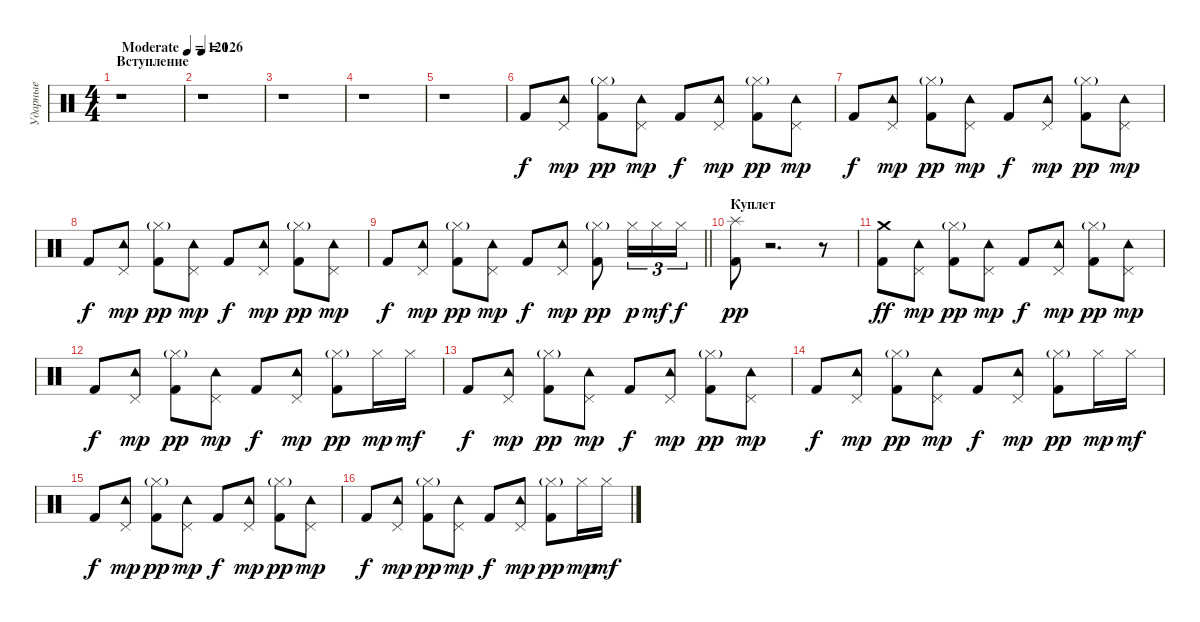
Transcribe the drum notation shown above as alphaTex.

\track ("Ударные" "Ударные") {instrument percussion}
\staff {score}
\articulation defaults
\ts (4 4)
\section ("" "Вступление")
\tempo (120 "Moderate")
\clef neutral
\ks c
r.1{dy f} |
\tempo 126
r.1 |
r.1 |
r.1 |
r.1 |
"Kick (hit) 2".8 ("Pedal Hi-Hat (hit)" "Tambourine (hit)").8{dy mp} ("Hi-Hat (closed)"{g} "Kick (hit) 2").8{dy pp} ("Pedal Hi-Hat (hit)" "Tambourine (hit)").8{dy mp} "Kick (hit) 2".8{dy f} ("Pedal Hi-Hat (hit)" "Tambourine (hit)").8{dy mp} ("Hi-Hat (closed)"{g} "Kick (hit) 2").8{dy pp} ("Pedal Hi-Hat (hit)" "Tambourine (hit)").8{dy mp} |
"Kick (hit) 2".8{dy f} ("Pedal Hi-Hat (hit)" "Tambourine (hit)").8{dy mp} ("Hi-Hat (closed)"{g} "Kick (hit) 2").8{dy pp} ("Pedal Hi-Hat (hit)" "Tambourine (hit)").8{dy mp} "Kick (hit) 2".8{dy f} ("Pedal Hi-Hat (hit)" "Tambourine (hit)").8{dy mp} ("Hi-Hat (closed)"{g} "Kick (hit) 2").8{dy pp} ("Pedal Hi-Hat (hit)" "Tambourine (hit)").8{dy mp} |
"Kick (hit) 2".8{dy f} ("Pedal Hi-Hat (hit)" "Tambourine (hit)").8{dy mp} ("Hi-Hat (closed)"{g} "Kick (hit) 2").8{dy pp} ("Pedal Hi-Hat (hit)" "Tambourine (hit)").8{dy mp} "Kick (hit) 2".8{dy f} ("Pedal Hi-Hat (hit)" "Tambourine (hit)").8{dy mp} ("Hi-Hat (closed)"{g} "Kick (hit) 2").8{dy pp} ("Pedal Hi-Hat (hit)" "Tambourine (hit)").8{dy mp} |
\barLineRight lightlight "Kick (hit) 2".8{dy f}
("Pedal Hi-Hat (hit)" "Tambourine (hit)").8{dy mp} ("Hi-Hat (closed)"{g} "Kick (hit) 2").8{dy pp} ("Pedal Hi-Hat (hit)" "Tambourine (hit)").8{dy mp} "Kick (hit) 2".8{dy f} ("Pedal Hi-Hat (hit)" "Tambourine (hit)").8{dy mp} ("Hi-Hat (closed)"{g} "Kick (hit) 2").8{dy pp} "Hi-Hat (closed)".16{tu (3 2) dy p} "Hi-Hat (closed)".16{tu (3 2) dy mf} "Hi-Hat (closed)".16{tu (3 2) dy f} |
\section ("" "Куплет")
("Splash (hit)" "Kick (hit) 2").8{dy pp} r.2{d} r.8 |
("Crash medium (hit)" "Kick (hit) 2").8{dy ff} ("Pedal Hi-Hat (hit)" "Tambourine (hit)").8{dy mp} ("Hi-Hat (closed)"{g} "Kick (hit) 2").8{dy pp} ("Pedal Hi-Hat (hit)" "Tambourine (hit)").8{dy mp} "Kick (hit) 2".8{dy f} ("Pedal Hi-Hat (hit)" "Tambourine (hit)").8{dy mp} ("Hi-Hat (closed)"{g} "Kick (hit) 2").8{dy pp} ("Pedal Hi-Hat (hit)" "Tambourine (hit)").8{dy mp} |
"Kick (hit) 2".8{dy f} ("Pedal Hi-Hat (hit)" "Tambourine (hit)").8{dy mp} ("Hi-Hat (closed)"{g} "Kick (hit) 2").8{dy pp} ("Pedal Hi-Hat (hit)" "Tambourine (hit)").8{dy mp} "Kick (hit) 2".8{dy f} ("Pedal Hi-Hat (hit)" "Tambourine (hit)").8{dy mp} ("Hi-Hat (closed)"{g} "Kick (hit) 2").8{dy pp} "Hi-Hat (closed)".16{dy mp} "Hi-Hat (closed)".16{dy mf} |
"Kick (hit) 2".8{dy f} ("Pedal Hi-Hat (hit)" "Tambourine (hit)").8{dy mp} ("Hi-Hat (closed)"{g} "Kick (hit) 2").8{dy pp} ("Pedal Hi-Hat (hit)" "Tambourine (hit)").8{dy mp} "Kick (hit) 2".8{dy f} ("Pedal Hi-Hat (hit)" "Tambourine (hit)").8{dy mp} ("Hi-Hat (closed)"{g} "Kick (hit) 2").8{dy pp} ("Pedal Hi-Hat (hit)" "Tambourine (hit)").8{dy mp} |
"Kick (hit) 2".8{dy f} ("Pedal Hi-Hat (hit)" "Tambourine (hit)").8{dy mp} ("Hi-Hat (closed)"{g} "Kick (hit) 2").8{dy pp} ("Pedal Hi-Hat (hit)" "Tambourine (hit)").8{dy mp} "Kick (hit) 2".8{dy f} ("Pedal Hi-Hat (hit)" "Tambourine (hit)").8{dy mp} ("Hi-Hat (closed)"{g} "Kick (hit) 2").8{dy pp} "Hi-Hat (closed)".16{dy mp} "Hi-Hat (closed)".16{dy mf} |
"Kick (hit) 2".8{dy f} ("Pedal Hi-Hat (hit)" "Tambourine (hit)").8{dy mp} ("Hi-Hat (closed)"{g} "Kick (hit) 2").8{dy pp} ("Pedal Hi-Hat (hit)" "Tambourine (hit)").8{dy mp} "Kick (hit) 2".8{dy f} ("Pedal Hi-Hat (hit)" "Tambourine (hit)").8{dy mp} ("Hi-Hat (closed)"{g} "Kick (hit) 2").8{dy pp} ("Pedal Hi-Hat (hit)" "Tambourine (hit)").8{dy mp} |
"Kick (hit) 2".8{dy f} ("Pedal Hi-Hat (hit)" "Tambourine (hit)").8{dy mp} ("Hi-Hat (closed)"{g} "Kick (hit) 2").8{dy pp} ("Pedal Hi-Hat (hit)" "Tambourine (hit)").8{dy mp} "Kick (hit) 2".8{dy f} ("Pedal Hi-Hat (hit)" "Tambourine (hit)").8{dy mp} ("Hi-Hat (closed)"{g} "Kick (hit) 2").8{dy pp} "Hi-Hat (closed)".16{dy mp} "Hi-Hat (closed)".16{dy mf}
